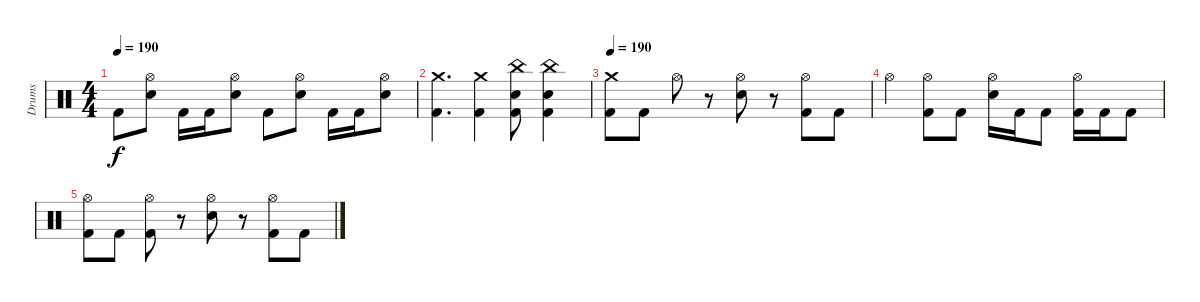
\track ("Drums" "Drums") {instrument percussion}
\staff {score}
\articulation defaults
\ts (4 4)
\tempo 190
\clef neutral
\ks c "Kick (hit) 2".8{dy f}
("Hi-Hat (open)" "Electric Snare (hit)").8 "Kick (hit) 2".16 "Kick (hit) 2".16 ("Hi-Hat (open)" "Electric Snare (hit)").8 "Kick (hit) 2".8 ("Hi-Hat (open)" "Electric Snare (hit)").8 "Kick (hit) 2".16 "Kick (hit) 2".16 ("Hi-Hat (open)" "Electric Snare (hit)").8 |
("Crash medium (hit)" "Kick (hit) 2").4{d} ("Crash medium (hit)" "Kick (hit) 2").4 ("China (hit)" "Electric Snare (hit)" "Kick (hit) 2").8 ("China (hit)" "Electric Snare (hit)" "Kick (hit) 2").4 |
\tempo 190
("Crash medium (hit)" "Kick (hit) 2").8 "Kick (hit) 2".8 "Hi-Hat (open)".8 r.8 ("Hi-Hat (open)" "Electric Snare (hit)").8 r.8 ("Hi-Hat (open)" "Kick (hit) 2").8 "Kick (hit) 2".8 |
"Hi-Hat (open)".4 ("Hi-Hat (open)" "Kick (hit) 2").8 "Kick (hit) 2".8 ("Hi-Hat (open)" "Electric Snare (hit)").16 "Kick (hit) 2".16 "Kick (hit) 2".8 ("Hi-Hat (open)" "Kick (hit) 2").16 "Kick (hit) 2".16 "Kick (hit) 2".8 |
("Hi-Hat (open)" "Kick (hit) 2").8 "Kick (hit) 2".8 ("Hi-Hat (open)" "Kick (hit) 2").8 r.8 ("Hi-Hat (open)" "Electric Snare (hit)").8 r.8 ("Hi-Hat (open)" "Kick (hit) 2").8 "Kick (hit) 2".8
